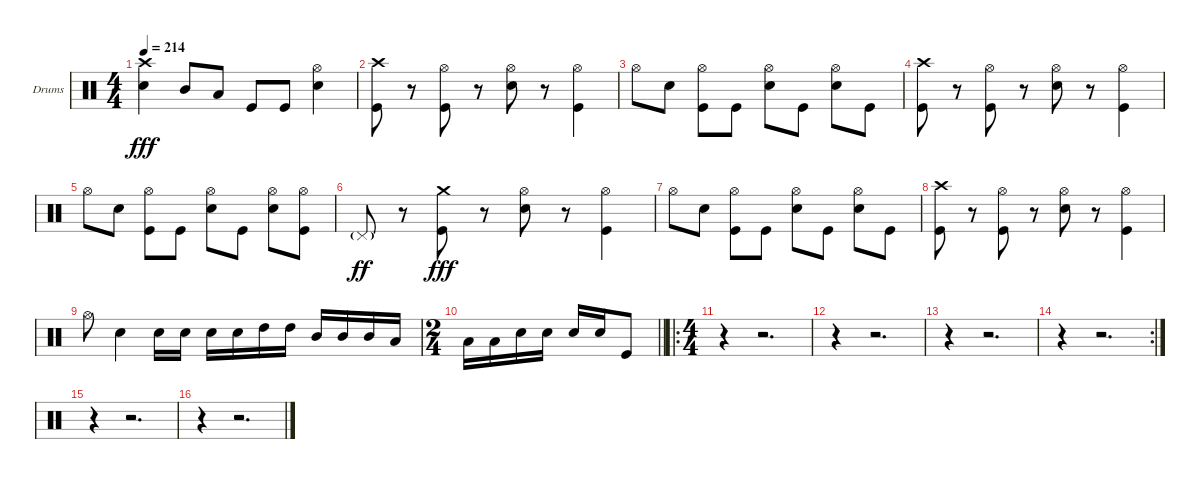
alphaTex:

\bracketExtendMode groupsimilarinstruments
\firstSystemTrackNameOrientation horizontal
\otherSystemsTrackNameOrientation horizontal
\track ("Drumkit" "Drums") {instrument percussion}
\staff {score}
\articulation defaults
\ts (4 4)
\tempo 214
\clef neutral
\ks c
("Crash high (hit)" "Snare (hit) 2").4{dy fff} "Mid Tom (hit)".8 "Low Tom (hit)".8 "Kick (hit)".8 "Kick (hit)".8 ("Hi-Hat (open)" "Snare (hit) 2").4 |
("Crash high (hit)" "Kick (hit)").8 r.8 ("Hi-Hat (open)" "Kick (hit)").8 r.8 ("Hi-Hat (open)" "Snare (hit) 2").8 r.8 ("Hi-Hat (open)" "Kick (hit)").4 |
"Hi-Hat (open)".8 "Snare (hit) 2".8 ("Hi-Hat (open)" "Kick (hit)").8 "Kick (hit)".8 ("Hi-Hat (open)" "Snare (hit) 2").8 "Kick (hit)".8 ("Hi-Hat (open)" "Snare (hit) 2").8 "Kick (hit)".8 |
("Crash high (hit)" "Kick (hit)").8 r.8 ("Hi-Hat (open)" "Kick (hit)").8 r.8 ("Hi-Hat (open)" "Snare (hit) 2").8 r.8 ("Hi-Hat (open)" "Kick (hit)").4 |
"Hi-Hat (open)".8 "Snare (hit) 2".8 ("Hi-Hat (open)" "Kick (hit)").8 "Kick (hit)".8 ("Hi-Hat (open)" "Snare (hit) 2").8 "Kick (hit)".8 ("Hi-Hat (open)" "Snare (hit) 2").8 ("Hi-Hat (open)" "Kick (hit)").8 |
"Pedal Hi-Hat (hit)"{g}.8{dy ff} r.8 ("Crash medium (hit)" "Kick (hit)").8{dy fff} r.8 ("Hi-Hat (open)" "Snare (hit) 2").8 r.8 ("Hi-Hat (open)" "Kick (hit)").4 |
"Hi-Hat (open)".8 "Snare (hit) 2".8 ("Hi-Hat (open)" "Kick (hit)").8 "Kick (hit)".8 ("Hi-Hat (open)" "Snare (hit) 2").8 "Kick (hit)".8 ("Hi-Hat (open)" "Snare (hit) 2").8 "Kick (hit)".8 |
("Crash high (hit)" "Kick (hit)").8 r.8 ("Hi-Hat (open)" "Kick (hit)").8 r.8 ("Hi-Hat (open)" "Snare (hit) 2").8 r.8 ("Hi-Hat (open)" "Kick (hit)").4 |
"Hi-Hat (open)".8 "Snare (hit) 2".4 "Snare (hit) 2".16 "Snare (hit) 2".16 "Snare (hit) 2".16 "Snare (hit) 2".16 "High Tom (hit)".16 "High Tom (hit)".16 "Mid Tom (hit)".16 "Mid Tom (hit)".16 "Mid Tom (hit)".16 "Low Tom (hit)".16 |
\ts (2 4)
\beaming (8 2 2 2 2)
\barLineRight lightlight "Low Tom (hit)".16 "Low Tom (hit)".16 "Snare (hit) 2".16 "Snare (hit) 2".16 "Snare (hit) 2".16 "Snare (hit) 2".16 "Kick (hit)".8
|
\ro
\ts (4 4)
\beaming (8 2 2 2 2)
r.4 r.2{d} |
r.4 r.2{d} |
r.4 r.2{d} |
\rc 2
r.4 r.2{d} |
r.4 r.2{d} |
r.4 r.2{d}
